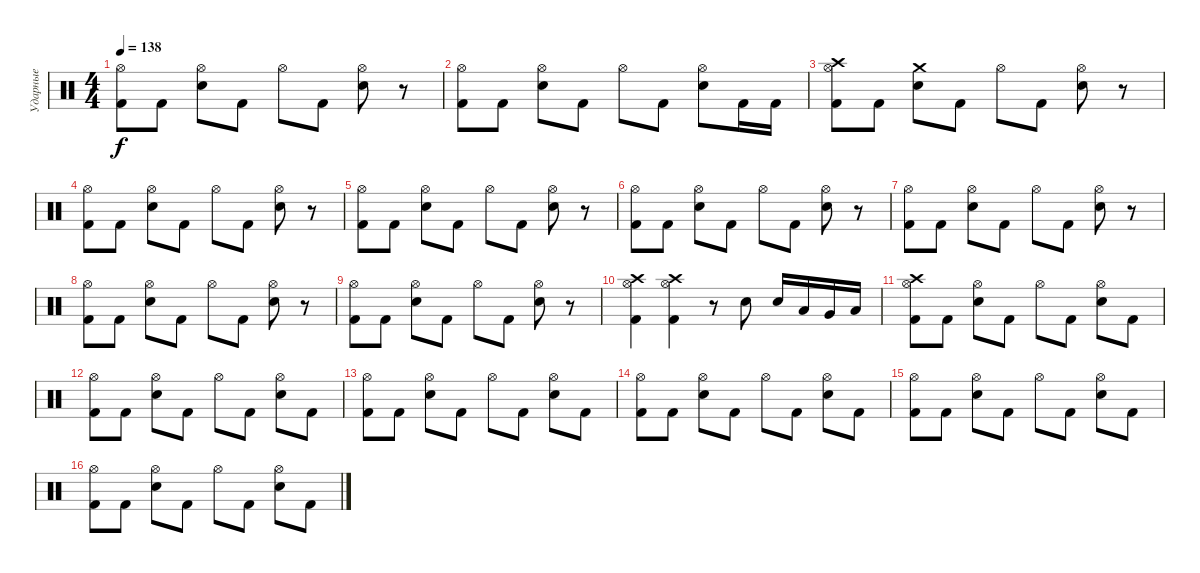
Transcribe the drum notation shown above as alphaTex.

\track ("Ударные" "Ударные") {instrument percussion}
\staff {score}
\articulation defaults
\ts (4 4)
\tempo 138
\clef neutral
\ks c
("Hi-Hat (open)" "Kick (hit) 2").8{dy f} "Kick (hit) 2".8 ("Electric Snare (hit)" "Hi-Hat (open)").8 "Kick (hit) 2".8 "Hi-Hat (open)".8 "Kick (hit) 2".8 ("Electric Snare (hit)" "Hi-Hat (open)").8 r.8 |
("Hi-Hat (open)" "Kick (hit) 2").8 "Kick (hit) 2".8 ("Electric Snare (hit)" "Hi-Hat (open)").8 "Kick (hit) 2".8 "Hi-Hat (open)".8 "Kick (hit) 2".8 ("Electric Snare (hit)" "Hi-Hat (open)").8 "Kick (hit) 2".16 "Kick (hit) 2".16 |
("Crash high (hit)" "Hi-Hat (open)" "Kick (hit) 2").8 "Kick (hit) 2".8 ("Electric Snare (hit)" "Crash medium (hit)").8 "Kick (hit) 2".8 "Hi-Hat (open)".8 "Kick (hit) 2".8 ("Electric Snare (hit)" "Hi-Hat (open)").8 r.8 |
("Hi-Hat (open)" "Kick (hit) 2").8 "Kick (hit) 2".8 ("Electric Snare (hit)" "Hi-Hat (open)").8 "Kick (hit) 2".8 "Hi-Hat (open)".8 "Kick (hit) 2".8 ("Electric Snare (hit)" "Hi-Hat (open)").8 r.8 |
("Hi-Hat (open)" "Kick (hit) 2").8 "Kick (hit) 2".8 ("Electric Snare (hit)" "Hi-Hat (open)").8 "Kick (hit) 2".8 "Hi-Hat (open)".8 "Kick (hit) 2".8 ("Electric Snare (hit)" "Hi-Hat (open)").8 r.8 |
("Hi-Hat (open)" "Kick (hit) 2").8 "Kick (hit) 2".8 ("Electric Snare (hit)" "Hi-Hat (open)").8 "Kick (hit) 2".8 "Hi-Hat (open)".8 "Kick (hit) 2".8 ("Electric Snare (hit)" "Hi-Hat (open)").8 r.8 |
("Hi-Hat (open)" "Kick (hit) 2").8 "Kick (hit) 2".8 ("Electric Snare (hit)" "Hi-Hat (open)").8 "Kick (hit) 2".8 "Hi-Hat (open)".8 "Kick (hit) 2".8 ("Electric Snare (hit)" "Hi-Hat (open)").8 r.8 |
("Hi-Hat (open)" "Kick (hit) 2").8 "Kick (hit) 2".8 ("Electric Snare (hit)" "Hi-Hat (open)").8 "Kick (hit) 2".8 "Hi-Hat (open)".8 "Kick (hit) 2".8 ("Electric Snare (hit)" "Hi-Hat (open)").8 r.8 |
("Hi-Hat (open)" "Kick (hit) 2").8 "Kick (hit) 2".8 ("Electric Snare (hit)" "Hi-Hat (open)").8 "Kick (hit) 2".8 "Hi-Hat (open)".8 "Kick (hit) 2".8 ("Electric Snare (hit)" "Hi-Hat (open)").8 r.8 |
("Crash high (hit)" "Hi-Hat (open)" "Kick (hit) 2").4 ("Crash high (hit)" "Hi-Hat (open)" "Kick (hit) 2").4 r.8 "Electric Snare (hit)".8 "Electric Snare (hit)".16 "Low Tom (hit)".16 "Very Low Tom (hit)".16 "Low Floor Tom (hit)".16 |
("Crash high (hit)" "Hi-Hat (open)" "Kick (hit) 2").8 "Kick (hit) 2".8 ("Electric Snare (hit)" "Hi-Hat (open)").8 "Kick (hit) 2".8 "Hi-Hat (open)".8 "Kick (hit) 2".8 ("Electric Snare (hit)" "Hi-Hat (open)").8 "Kick (hit) 2".8 |
("Hi-Hat (open)" "Kick (hit) 2").8 "Kick (hit) 2".8 ("Electric Snare (hit)" "Hi-Hat (open)").8 "Kick (hit) 2".8 "Hi-Hat (open)".8 "Kick (hit) 2".8 ("Electric Snare (hit)" "Hi-Hat (open)").8 "Kick (hit) 2".8 |
("Hi-Hat (open)" "Kick (hit) 2").8 "Kick (hit) 2".8 ("Electric Snare (hit)" "Hi-Hat (open)").8 "Kick (hit) 2".8 "Hi-Hat (open)".8 "Kick (hit) 2".8 ("Electric Snare (hit)" "Hi-Hat (open)").8 "Kick (hit) 2".8 |
("Hi-Hat (open)" "Kick (hit) 2").8 "Kick (hit) 2".8 ("Electric Snare (hit)" "Hi-Hat (open)").8 "Kick (hit) 2".8 "Hi-Hat (open)".8 "Kick (hit) 2".8 ("Electric Snare (hit)" "Hi-Hat (open)").8 "Kick (hit) 2".8 |
("Hi-Hat (open)" "Kick (hit) 2").8 "Kick (hit) 2".8 ("Electric Snare (hit)" "Hi-Hat (open)").8 "Kick (hit) 2".8 "Hi-Hat (open)".8 "Kick (hit) 2".8 ("Electric Snare (hit)" "Hi-Hat (open)").8 "Kick (hit) 2".8 |
("Hi-Hat (open)" "Kick (hit) 2").8 "Kick (hit) 2".8 ("Electric Snare (hit)" "Hi-Hat (open)").8 "Kick (hit) 2".8 "Hi-Hat (open)".8 "Kick (hit) 2".8 ("Electric Snare (hit)" "Hi-Hat (open)").8 "Kick (hit) 2".8
